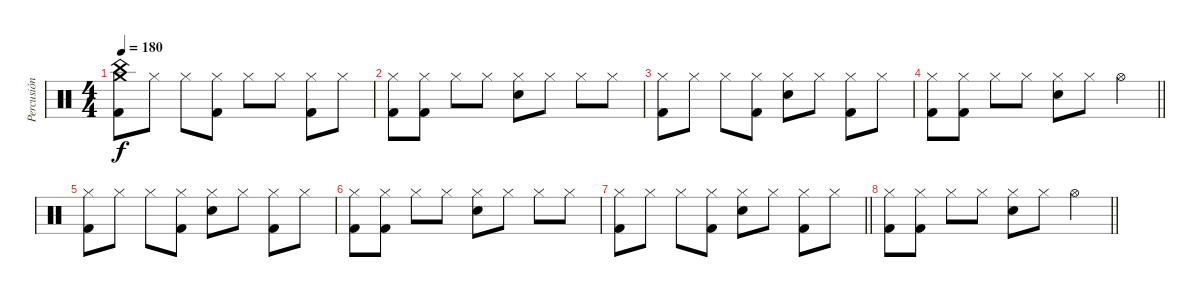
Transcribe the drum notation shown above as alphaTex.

\track ("Percusión" "Percusión") {instrument percussion}
\staff {score}
\articulation defaults
\ts (4 4)
\tempo 180
\clef neutral
\ks c
("Crash medium (hit)" "China (hit)" "Kick (hit) 2").8{dy f} "Hi-Hat (closed)".8 "Hi-Hat (closed)".8 ("Hi-Hat (closed)" "Kick (hit) 2").8 "Hi-Hat (closed)".8 "Hi-Hat (closed)".8 ("Hi-Hat (closed)" "Kick (hit) 2").8 "Hi-Hat (closed)".8 |
("Hi-Hat (closed)" "Kick (hit) 2").8 ("Hi-Hat (closed)" "Kick (hit) 2").8 "Hi-Hat (closed)".8 "Hi-Hat (closed)".8 ("Hi-Hat (closed)" "Snare (hit) 2").8 "Hi-Hat (closed)".8 "Hi-Hat (closed)".8 "Hi-Hat (closed)".8 |
("Hi-Hat (closed)" "Kick (hit) 2").8 "Hi-Hat (closed)".8 "Hi-Hat (closed)".8 ("Hi-Hat (closed)" "Kick (hit) 2").8 ("Hi-Hat (closed)" "Snare (hit) 2").8 "Hi-Hat (closed)".8 ("Hi-Hat (closed)" "Kick (hit) 2").8 "Hi-Hat (closed)".8 |
\barLineRight lightlight
("Hi-Hat (closed)" "Kick (hit) 2").8 ("Hi-Hat (closed)" "Kick (hit) 2").8 "Hi-Hat (closed)".8 "Hi-Hat (closed)".8 ("Hi-Hat (closed)" "Snare (hit) 2").8 "Hi-Hat (closed)".8 "Hi-Hat (open)".4 |
("Hi-Hat (closed)" "Kick (hit) 2").8 "Hi-Hat (closed)".8 "Hi-Hat (closed)".8 ("Hi-Hat (closed)" "Kick (hit) 2").8 ("Hi-Hat (closed)" "Snare (hit) 2").8 "Hi-Hat (closed)".8 ("Hi-Hat (closed)" "Kick (hit) 2").8 "Hi-Hat (closed)".8 |
("Hi-Hat (closed)" "Kick (hit) 2").8 ("Hi-Hat (closed)" "Kick (hit) 2").8 "Hi-Hat (closed)".8 "Hi-Hat (closed)".8 ("Hi-Hat (closed)" "Snare (hit) 2").8 "Hi-Hat (closed)".8 "Hi-Hat (closed)".8 "Hi-Hat (closed)".8 |
\barLineRight lightlight
("Hi-Hat (closed)" "Kick (hit) 2").8 "Hi-Hat (closed)".8 "Hi-Hat (closed)".8 ("Hi-Hat (closed)" "Kick (hit) 2").8 ("Hi-Hat (closed)" "Snare (hit) 2").8 "Hi-Hat (closed)".8 ("Hi-Hat (closed)" "Kick (hit) 2").8 "Hi-Hat (closed)".8 |
\barLineRight lightlight
("Hi-Hat (closed)" "Kick (hit) 2").8 ("Hi-Hat (closed)" "Kick (hit) 2").8 "Hi-Hat (closed)".8 "Hi-Hat (closed)".8 ("Hi-Hat (closed)" "Snare (hit) 2").8 "Hi-Hat (closed)".8 "Hi-Hat (open)".4
